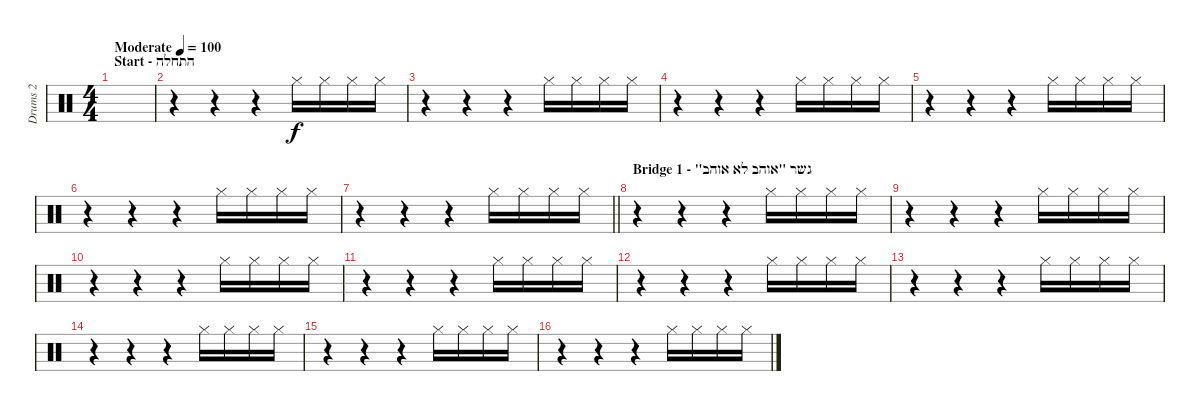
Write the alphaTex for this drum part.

\track ("Drums 2" "Drums 2") {instrument percussion}
\staff {score}
\articulation defaults
\ts (4 4)
\section ("" "Start - התחלה")
\tempo (100 "Moderate")
\clef neutral
\ks c
|
r.4 r.4 r.4 "Hi-Hat (closed)".16 "Hi-Hat (closed)".16 "Hi-Hat (closed)".16 "Hi-Hat (closed)".16 |
r.4 r.4 r.4 "Hi-Hat (closed)".16 "Hi-Hat (closed)".16 "Hi-Hat (closed)".16 "Hi-Hat (closed)".16 |
r.4 r.4 r.4 "Hi-Hat (closed)".16 "Hi-Hat (closed)".16 "Hi-Hat (closed)".16 "Hi-Hat (closed)".16 |
r.4 r.4 r.4 "Hi-Hat (closed)".16 "Hi-Hat (closed)".16 "Hi-Hat (closed)".16 "Hi-Hat (closed)".16 |
r.4 r.4 r.4 "Hi-Hat (closed)".16 "Hi-Hat (closed)".16 "Hi-Hat (closed)".16 "Hi-Hat (closed)".16 |
\barLineRight lightlight
r.4 r.4 r.4 "Hi-Hat (closed)".16 "Hi-Hat (closed)".16 "Hi-Hat (closed)".16 "Hi-Hat (closed)".16 |
\section ("" "Bridge 1 - \"גשר \"אוהב לא אוהב")
r.4 r.4 r.4 "Hi-Hat (closed)".16 "Hi-Hat (closed)".16 "Hi-Hat (closed)".16 "Hi-Hat (closed)".16 |
r.4 r.4 r.4 "Hi-Hat (closed)".16 "Hi-Hat (closed)".16 "Hi-Hat (closed)".16 "Hi-Hat (closed)".16 |
r.4 r.4 r.4 "Hi-Hat (closed)".16 "Hi-Hat (closed)".16 "Hi-Hat (closed)".16 "Hi-Hat (closed)".16 |
r.4 r.4 r.4 "Hi-Hat (closed)".16 "Hi-Hat (closed)".16 "Hi-Hat (closed)".16 "Hi-Hat (closed)".16 |
r.4 r.4 r.4 "Hi-Hat (closed)".16 "Hi-Hat (closed)".16 "Hi-Hat (closed)".16 "Hi-Hat (closed)".16 |
r.4 r.4 r.4 "Hi-Hat (closed)".16 "Hi-Hat (closed)".16 "Hi-Hat (closed)".16 "Hi-Hat (closed)".16 |
r.4 r.4 r.4 "Hi-Hat (closed)".16 "Hi-Hat (closed)".16 "Hi-Hat (closed)".16 "Hi-Hat (closed)".16 |
r.4 r.4 r.4 "Hi-Hat (closed)".16 "Hi-Hat (closed)".16 "Hi-Hat (closed)".16 "Hi-Hat (closed)".16 |
r.4 r.4 r.4 "Hi-Hat (closed)".16 "Hi-Hat (closed)".16 "Hi-Hat (closed)".16 "Hi-Hat (closed)".16
